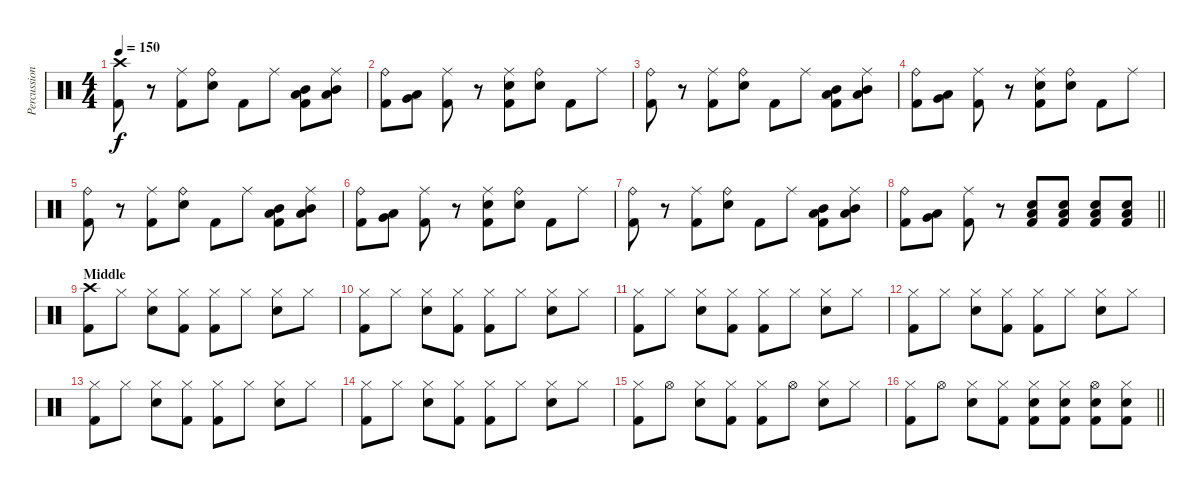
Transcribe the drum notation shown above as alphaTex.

\track ("Percussion" "Percussion") {instrument percussion}
\staff {score}
\articulation defaults
\ts (4 4)
\tempo 150
\clef neutral
\ks c
("Crash high (hit)" "Kick (hit) 2").8{dy f} r.8 ("Ride (middle)" "Kick (hit) 2").8 ("Ride (bell)" "Electric Snare (hit)").8 "Kick (hit) 2".8 "Ride (middle)".8 ("Mid Tom (hit)" "Low Tom (hit)" "Kick (hit) 2").8 ("Ride (middle)" "Mid Tom (hit)" "Low Tom (hit)").8 |
("Ride (bell)" "Kick (hit) 2").8 ("Very Low Tom (hit)" "Low Floor Tom (hit)").8 ("Ride (middle)" "Kick (hit) 2").8 r.8 ("Ride (middle)" "Electric Snare (hit)" "Kick (hit) 2").8 ("Ride (bell)" "Electric Snare (hit)").8 "Kick (hit) 2".8 "Ride (middle)".8 |
("Ride (bell)" "Kick (hit) 2").8 r.8 ("Ride (middle)" "Kick (hit) 2").8 ("Ride (bell)" "Electric Snare (hit)").8 "Kick (hit) 2".8 "Ride (middle)".8 ("Mid Tom (hit)" "Low Tom (hit)" "Kick (hit) 2").8 ("Ride (middle)" "Mid Tom (hit)" "Low Tom (hit)").8 |
("Ride (bell)" "Kick (hit) 2").8 ("Very Low Tom (hit)" "Low Floor Tom (hit)").8 ("Ride (middle)" "Kick (hit) 2").8 r.8 ("Ride (middle)" "Electric Snare (hit)" "Kick (hit) 2").8 ("Ride (bell)" "Electric Snare (hit)").8 "Kick (hit) 2".8 "Ride (middle)".8 |
("Ride (bell)" "Kick (hit) 2").8 r.8 ("Ride (middle)" "Kick (hit) 2").8 ("Ride (bell)" "Electric Snare (hit)").8 "Kick (hit) 2".8 "Ride (middle)".8 ("Mid Tom (hit)" "Low Tom (hit)" "Kick (hit) 2").8 ("Ride (middle)" "Mid Tom (hit)" "Low Tom (hit)").8 |
("Ride (bell)" "Kick (hit) 2").8 ("Very Low Tom (hit)" "Low Floor Tom (hit)").8 ("Ride (middle)" "Kick (hit) 2").8 r.8 ("Ride (middle)" "Electric Snare (hit)" "Kick (hit) 2").8 ("Ride (bell)" "Electric Snare (hit)").8 "Kick (hit) 2".8 "Ride (middle)".8 |
("Ride (bell)" "Kick (hit) 2").8 r.8 ("Ride (middle)" "Kick (hit) 2").8 ("Ride (bell)" "Electric Snare (hit)").8 "Kick (hit) 2".8 "Ride (middle)".8 ("Mid Tom (hit)" "Low Tom (hit)" "Kick (hit) 2").8 ("Ride (middle)" "Mid Tom (hit)" "Low Tom (hit)").8 |
\barLineRight lightlight
("Ride (bell)" "Kick (hit) 2").8 ("Very Low Tom (hit)" "Low Floor Tom (hit)").8 ("Ride (middle)" "Kick (hit) 2").8 r.8 ("Electric Snare (hit)" "Low Floor Tom (hit)" "Kick (hit) 2").8 ("Electric Snare (hit)" "Low Floor Tom (hit)" "Kick (hit) 2").8 ("Electric Snare (hit)" "Low Floor Tom (hit)" "Kick (hit) 2").8 ("Electric Snare (hit)" "Low Floor Tom (hit)" "Kick (hit) 2").8 |
\section ("" "Middle")
("Crash high (hit)" "Kick (hit) 2").8 "Hi-Hat (closed)".8 ("Hi-Hat (closed)" "Electric Snare (hit)").8 ("Hi-Hat (closed)" "Kick (hit) 2").8 ("Hi-Hat (closed)" "Kick (hit) 2").8 "Hi-Hat (closed)".8 ("Hi-Hat (closed)" "Electric Snare (hit)").8 "Hi-Hat (closed)".8 |
("Hi-Hat (closed)" "Kick (hit) 2").8 "Hi-Hat (closed)".8 ("Hi-Hat (closed)" "Electric Snare (hit)").8 ("Hi-Hat (closed)" "Kick (hit) 2").8 ("Hi-Hat (closed)" "Kick (hit) 2").8 "Hi-Hat (closed)".8 ("Hi-Hat (closed)" "Electric Snare (hit)").8 "Hi-Hat (closed)".8 |
("Hi-Hat (closed)" "Kick (hit) 2").8 "Hi-Hat (closed)".8 ("Hi-Hat (closed)" "Electric Snare (hit)").8 ("Hi-Hat (closed)" "Kick (hit) 2").8 ("Hi-Hat (closed)" "Kick (hit) 2").8 "Hi-Hat (closed)".8 ("Hi-Hat (closed)" "Electric Snare (hit)").8 "Hi-Hat (closed)".8 |
("Hi-Hat (closed)" "Kick (hit) 2").8 "Hi-Hat (closed)".8 ("Hi-Hat (closed)" "Electric Snare (hit)").8 ("Hi-Hat (closed)" "Kick (hit) 2").8 ("Hi-Hat (closed)" "Kick (hit) 2").8 "Hi-Hat (closed)".8 ("Hi-Hat (closed)" "Electric Snare (hit)").8 "Hi-Hat (closed)".8 |
("Hi-Hat (closed)" "Kick (hit) 2").8 "Hi-Hat (closed)".8 ("Hi-Hat (closed)" "Electric Snare (hit)").8 ("Hi-Hat (closed)" "Kick (hit) 2").8 ("Hi-Hat (closed)" "Kick (hit) 2").8 "Hi-Hat (closed)".8 ("Hi-Hat (closed)" "Electric Snare (hit)").8 "Hi-Hat (closed)".8 |
("Hi-Hat (closed)" "Kick (hit) 2").8 "Hi-Hat (closed)".8 ("Hi-Hat (closed)" "Electric Snare (hit)").8 ("Hi-Hat (closed)" "Kick (hit) 2").8 ("Hi-Hat (closed)" "Kick (hit) 2").8 "Hi-Hat (closed)".8 ("Hi-Hat (closed)" "Electric Snare (hit)").8 "Hi-Hat (closed)".8 |
("Hi-Hat (closed)" "Kick (hit) 2").8 "Hi-Hat (open)".8 ("Hi-Hat (closed)" "Electric Snare (hit)").8 ("Hi-Hat (closed)" "Kick (hit) 2").8 ("Hi-Hat (closed)" "Kick (hit) 2").8 "Hi-Hat (open)".8 ("Hi-Hat (closed)" "Electric Snare (hit)").8 "Hi-Hat (closed)".8 |
\barLineRight lightlight
("Hi-Hat (closed)" "Kick (hit) 2").8 "Hi-Hat (open)".8 ("Hi-Hat (closed)" "Electric Snare (hit)").8 ("Hi-Hat (closed)" "Kick (hit) 2").8 ("Hi-Hat (closed)" "Electric Snare (hit)" "Kick (hit) 2").8 ("Hi-Hat (closed)" "Electric Snare (hit)" "Kick (hit) 2").8 ("Hi-Hat (open)" "Electric Snare (hit)" "Kick (hit) 2").8 ("Hi-Hat (closed)" "Electric Snare (hit)" "Kick (hit) 2").8
